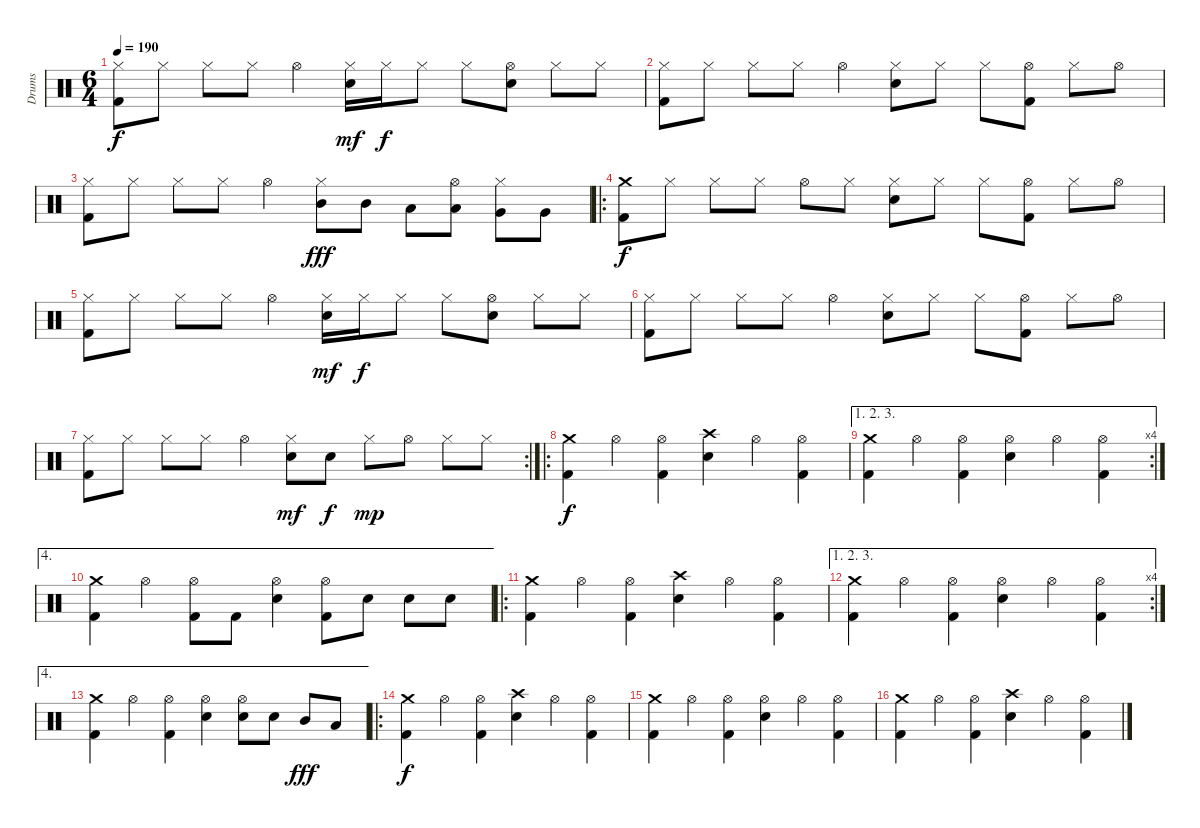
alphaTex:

\track ("Drums" "Drums") {instrument percussion}
\staff {score}
\articulation defaults
\ts (6 4)
\tempo 190
\clef neutral
\ks c
("Hi-Hat (closed)" "Kick (hit) 2").8{dy f} "Hi-Hat (closed)".8 "Hi-Hat (closed)".8 "Hi-Hat (closed)".8 "Hi-Hat (open)".4 ("Hi-Hat (closed)" "Electric Snare (hit)").16{dy mf} "Hi-Hat (closed)".16{dy f} "Hi-Hat (closed)".8 "Hi-Hat (closed)".8 ("Hi-Hat (open)" "Electric Snare (hit)").8 "Hi-Hat (closed)".8 "Hi-Hat (closed)".8 |
("Hi-Hat (closed)" "Kick (hit) 2").8 "Hi-Hat (closed)".8 "Hi-Hat (closed)".8 "Hi-Hat (closed)".8 "Hi-Hat (open)".4 ("Hi-Hat (closed)" "Electric Snare (hit)").8 "Hi-Hat (closed)".8 "Hi-Hat (closed)".8 ("Hi-Hat (open)" "Kick (hit) 2").8 "Hi-Hat (closed)".8 "Hi-Hat (open)".8 |
("Hi-Hat (closed)" "Kick (hit) 2").8 "Hi-Hat (closed)".8 "Hi-Hat (closed)".8 "Hi-Hat (closed)".8 "Hi-Hat (open)".4 ("Hi-Hat (closed)" "Mid Tom (hit)").8{dy fff} "Mid Tom (hit)".8 "Low Tom (hit)".8 ("Hi-Hat (open)" "Low Tom (hit)").8 ("Hi-Hat (closed)" "Very Low Tom (hit)").8 "Very Low Tom (hit)".8 |
\ro
("Crash medium (hit)" "Kick (hit) 2").8{dy f} "Hi-Hat (closed)".8 "Hi-Hat (closed)".8 "Hi-Hat (closed)".8 "Hi-Hat (open)".8 "Hi-Hat (closed)".8 ("Hi-Hat (closed)" "Electric Snare (hit)").8 "Hi-Hat (closed)".8 "Hi-Hat (closed)".8 ("Hi-Hat (open)" "Kick (hit) 2").8 "Hi-Hat (closed)".8 "Hi-Hat (open)".8 |
("Hi-Hat (closed)" "Kick (hit) 2").8 "Hi-Hat (closed)".8 "Hi-Hat (closed)".8 "Hi-Hat (closed)".8 "Hi-Hat (open)".4 ("Hi-Hat (closed)" "Electric Snare (hit)").16{dy mf} "Hi-Hat (closed)".16{dy f} "Hi-Hat (closed)".8 "Hi-Hat (closed)".8 ("Hi-Hat (open)" "Electric Snare (hit)").8 "Hi-Hat (closed)".8 "Hi-Hat (closed)".8 |
("Hi-Hat (closed)" "Kick (hit) 2").8 "Hi-Hat (closed)".8 "Hi-Hat (closed)".8 "Hi-Hat (closed)".8 "Hi-Hat (open)".4 ("Hi-Hat (closed)" "Electric Snare (hit)").8 "Hi-Hat (closed)".8 "Hi-Hat (closed)".8 ("Hi-Hat (open)" "Kick (hit) 2").8 "Hi-Hat (closed)".8 "Hi-Hat (open)".8 |
\rc 2
("Hi-Hat (closed)" "Kick (hit) 2").8 "Hi-Hat (closed)".8 "Hi-Hat (closed)".8 "Hi-Hat (closed)".8 "Hi-Hat (open)".4 ("Hi-Hat (closed)" "Electric Snare (hit)").8{dy mf} "Electric Snare (hit)".8{dy f} "Hi-Hat (closed)".8{dy mp} "Hi-Hat (open)".8 "Hi-Hat (closed)".8 "Hi-Hat (closed)".8 |
\ro
("Crash medium (hit)" "Kick (hit) 2").4{dy f} "Hi-Hat (open)".4 ("Hi-Hat (open)" "Kick (hit) 2").4 ("Crash high (hit)" "Electric Snare (hit)").4 "Hi-Hat (open)".4 ("Hi-Hat (open)" "Kick (hit) 2").4 |
\ae (1 2 3)
\rc 4
("Crash medium (hit)" "Kick (hit) 2").4 "Hi-Hat (open)".4 ("Hi-Hat (open)" "Kick (hit) 2").4 ("Hi-Hat (open)" "Electric Snare (hit)").4 "Hi-Hat (open)".4 ("Hi-Hat (open)" "Kick (hit) 2").4 |
\ae 4
("Crash medium (hit)" "Kick (hit) 2").4 "Hi-Hat (open)".4 ("Hi-Hat (open)" "Kick (hit) 2").8 "Kick (hit) 2".8 ("Hi-Hat (open)" "Electric Snare (hit)").4 ("Hi-Hat (open)" "Kick (hit) 2").8 "Electric Snare (hit)".8 "Electric Snare (hit)".8 "Electric Snare (hit)".8 |
\ro
("Crash medium (hit)" "Kick (hit) 2").4 "Hi-Hat (open)".4 ("Hi-Hat (open)" "Kick (hit) 2").4 ("Crash high (hit)" "Electric Snare (hit)").4 "Hi-Hat (open)".4 ("Hi-Hat (open)" "Kick (hit) 2").4 |
\ae (1 2 3)
\rc 4
("Crash medium (hit)" "Kick (hit) 2").4 "Hi-Hat (open)".4 ("Hi-Hat (open)" "Kick (hit) 2").4 ("Hi-Hat (open)" "Electric Snare (hit)").4 "Hi-Hat (open)".4 ("Hi-Hat (open)" "Kick (hit) 2").4 |
\ae 4
("Crash medium (hit)" "Kick (hit) 2").4 "Hi-Hat (open)".4 ("Hi-Hat (open)" "Kick (hit) 2").4 ("Hi-Hat (open)" "Electric Snare (hit)").4 ("Hi-Hat (open)" "Electric Snare (hit)").8 "Electric Snare (hit)".8 "Mid Tom (hit)".8{dy fff} "Low Tom (hit)".8 |
\ro
("Crash medium (hit)" "Kick (hit) 2").4{dy f} "Hi-Hat (open)".4 ("Hi-Hat (open)" "Kick (hit) 2").4 ("Crash high (hit)" "Electric Snare (hit)").4 "Hi-Hat (open)".4 ("Hi-Hat (open)" "Kick (hit) 2").4 |
("Crash medium (hit)" "Kick (hit) 2").4 "Hi-Hat (open)".4 ("Hi-Hat (open)" "Kick (hit) 2").4 ("Hi-Hat (open)" "Electric Snare (hit)").4 "Hi-Hat (open)".4 ("Hi-Hat (open)" "Kick (hit) 2").4 |
("Crash medium (hit)" "Kick (hit) 2").4 "Hi-Hat (open)".4 ("Hi-Hat (open)" "Kick (hit) 2").4 ("Crash high (hit)" "Electric Snare (hit)").4 "Hi-Hat (open)".4 ("Hi-Hat (open)" "Kick (hit) 2").4
